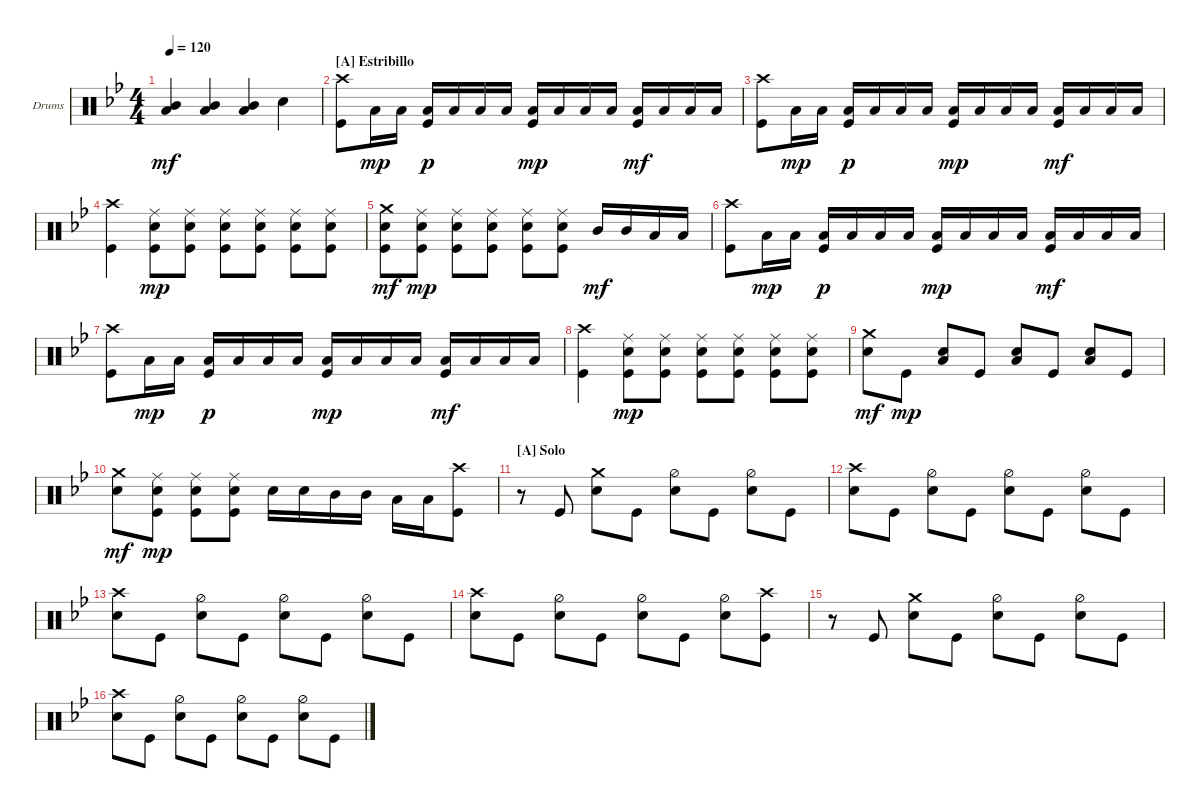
\bracketExtendMode groupsimilarinstruments
\firstSystemTrackNameOrientation horizontal
\otherSystemsTrackNameOrientation horizontal
\track ("Drums Ghoul" "Drums") {instrument percussion}
\staff {score}
\articulation defaults
\ts (4 4)
\tempo 120
\clef neutral
\ks bb
("Low Tom (hit)" "Mid Tom (hit)").4{dy mf} ("Low Tom (hit)" "Mid Tom (hit)").4 ("Low Tom (hit)" "Mid Tom (hit)").4 "Snare (hit) 2".4 |
\section ("A" "Estribillo")
("Crash high (hit)" "Kick (hit)").8 "Low Tom (hit)".16{dy mp} "Low Tom (hit)".16 ("Low Tom (hit)" "Kick (hit)").16{dy p} "Low Tom (hit)".16 "Low Tom (hit)".16 "Low Tom (hit)".16 ("Low Tom (hit)" "Kick (hit)").16{dy mp} "Low Tom (hit)".16 "Low Tom (hit)".16 "Low Tom (hit)".16 ("Low Tom (hit)" "Kick (hit)").16{dy mf} "Low Tom (hit)".16 "Low Tom (hit)".16 "Low Tom (hit)".16 |
("Crash high (hit)" "Kick (hit)").8 "Low Tom (hit)".16{dy mp} "Low Tom (hit)".16 ("Low Tom (hit)" "Kick (hit)").16{dy p} "Low Tom (hit)".16 "Low Tom (hit)".16 "Low Tom (hit)".16 ("Low Tom (hit)" "Kick (hit)").16{dy mp} "Low Tom (hit)".16 "Low Tom (hit)".16 "Low Tom (hit)".16 ("Low Tom (hit)" "Kick (hit)").16{dy mf} "Low Tom (hit)".16 "Low Tom (hit)".16 "Low Tom (hit)".16 |
("Kick (hit)" "Crash high (hit)").4 ("Kick (hit)" "Snare (hit) 2" "Ride (middle)").8{dy mp} ("Kick (hit)" "Snare (hit) 2" "Ride (middle)").8 ("Kick (hit)" "Snare (hit) 2" "Ride (middle)").8 ("Kick (hit)" "Snare (hit) 2" "Ride (middle)").8 ("Kick (hit)" "Snare (hit) 2" "Ride (middle)").8 ("Kick (hit)" "Snare (hit) 2" "Ride (middle)").8 |
("Kick (hit)" "Crash medium (hit)" "Snare (hit) 2").8{dy mf} ("Kick (hit)" "Snare (hit) 2" "Ride (middle)").8{dy mp} ("Kick (hit)" "Snare (hit) 2" "Ride (middle)").8 ("Kick (hit)" "Snare (hit) 2" "Ride (middle)").8 ("Kick (hit)" "Snare (hit) 2" "Ride (middle)").8 ("Kick (hit)" "Snare (hit) 2" "Ride (middle)").8 "Mid Tom (hit)".16{dy mf} "Mid Tom (hit)".16 "Low Tom (hit)".16 "Low Tom (hit)".16 |
("Crash high (hit)" "Kick (hit)").8 "Low Tom (hit)".16{dy mp} "Low Tom (hit)".16 ("Low Tom (hit)" "Kick (hit)").16{dy p} "Low Tom (hit)".16 "Low Tom (hit)".16 "Low Tom (hit)".16 ("Low Tom (hit)" "Kick (hit)").16{dy mp} "Low Tom (hit)".16 "Low Tom (hit)".16 "Low Tom (hit)".16 ("Low Tom (hit)" "Kick (hit)").16{dy mf} "Low Tom (hit)".16 "Low Tom (hit)".16 "Low Tom (hit)".16 |
("Crash high (hit)" "Kick (hit)").8 "Low Tom (hit)".16{dy mp} "Low Tom (hit)".16 ("Low Tom (hit)" "Kick (hit)").16{dy p} "Low Tom (hit)".16 "Low Tom (hit)".16 "Low Tom (hit)".16 ("Low Tom (hit)" "Kick (hit)").16{dy mp} "Low Tom (hit)".16 "Low Tom (hit)".16 "Low Tom (hit)".16 ("Low Tom (hit)" "Kick (hit)").16{dy mf} "Low Tom (hit)".16 "Low Tom (hit)".16 "Low Tom (hit)".16 |
("Kick (hit)" "Crash high (hit)").4 ("Kick (hit)" "Snare (hit) 2" "Ride (middle)").8{dy mp} ("Kick (hit)" "Snare (hit) 2" "Ride (middle)").8 ("Kick (hit)" "Snare (hit) 2" "Ride (middle)").8 ("Kick (hit)" "Snare (hit) 2" "Ride (middle)").8 ("Kick (hit)" "Snare (hit) 2" "Ride (middle)").8 ("Kick (hit)" "Snare (hit) 2" "Ride (middle)").8 |
("Crash medium (hit)" "Snare (hit) 2").8{dy mf} "Kick (hit)".8{dy mp} ("Snare (hit) 2" "Low Tom (hit)").8 "Kick (hit)".8 ("Snare (hit) 2" "Low Tom (hit)").8 "Kick (hit)".8 ("Snare (hit) 2" "Low Tom (hit)").8 "Kick (hit)".8 |
("Crash medium (hit)" "Snare (hit) 2").8{dy mf} ("Kick (hit)" "Snare (hit) 2" "Ride (middle)").8{dy mp} ("Kick (hit)" "Snare (hit) 2" "Ride (middle)").8 ("Kick (hit)" "Snare (hit) 2" "Ride (middle)").8 "Snare (hit) 2".16 "Snare (hit) 2".16 "Mid Tom (hit)".16 "Mid Tom (hit)".16 "Low Tom (hit)".16 "Low Tom (hit)".16 ("Kick (hit)" "Crash high (hit)").8 |
\section ("A" "Solo")
r.8 "Kick (hit)".8 ("Snare (hit) 2" "Crash medium (hit)").8 "Kick (hit)".8 ("Hi-Hat (half)" "Snare (hit) 2").8 "Kick (hit)".8 ("Hi-Hat (half)" "Snare (hit) 2").8 "Kick (hit)".8 |
("Snare (hit) 2" "Crash high (hit)").8 "Kick (hit)".8 ("Snare (hit) 2" "Hi-Hat (half)").8 "Kick (hit)".8 ("Hi-Hat (half)" "Snare (hit) 2").8 "Kick (hit)".8 ("Hi-Hat (half)" "Snare (hit) 2").8 "Kick (hit)".8 |
("Snare (hit) 2" "Crash high (hit)").8 "Kick (hit)".8 ("Snare (hit) 2" "Hi-Hat (half)").8 "Kick (hit)".8 ("Hi-Hat (half)" "Snare (hit) 2").8 "Kick (hit)".8 ("Hi-Hat (half)" "Snare (hit) 2").8 "Kick (hit)".8 |
("Snare (hit) 2" "Crash high (hit)").8 "Kick (hit)".8 ("Snare (hit) 2" "Hi-Hat (half)").8 "Kick (hit)".8 ("Hi-Hat (half)" "Snare (hit) 2").8 "Kick (hit)".8 ("Hi-Hat (half)" "Snare (hit) 2").8 ("Kick (hit)" "Crash high (hit)").8 |
r.8 "Kick (hit)".8 ("Snare (hit) 2" "Crash medium (hit)").8 "Kick (hit)".8 ("Hi-Hat (half)" "Snare (hit) 2").8 "Kick (hit)".8 ("Hi-Hat (half)" "Snare (hit) 2").8 "Kick (hit)".8 |
("Snare (hit) 2" "Crash high (hit)").8 "Kick (hit)".8 ("Snare (hit) 2" "Hi-Hat (half)").8 "Kick (hit)".8 ("Hi-Hat (half)" "Snare (hit) 2").8 "Kick (hit)".8 ("Hi-Hat (half)" "Snare (hit) 2").8 "Kick (hit)".8
